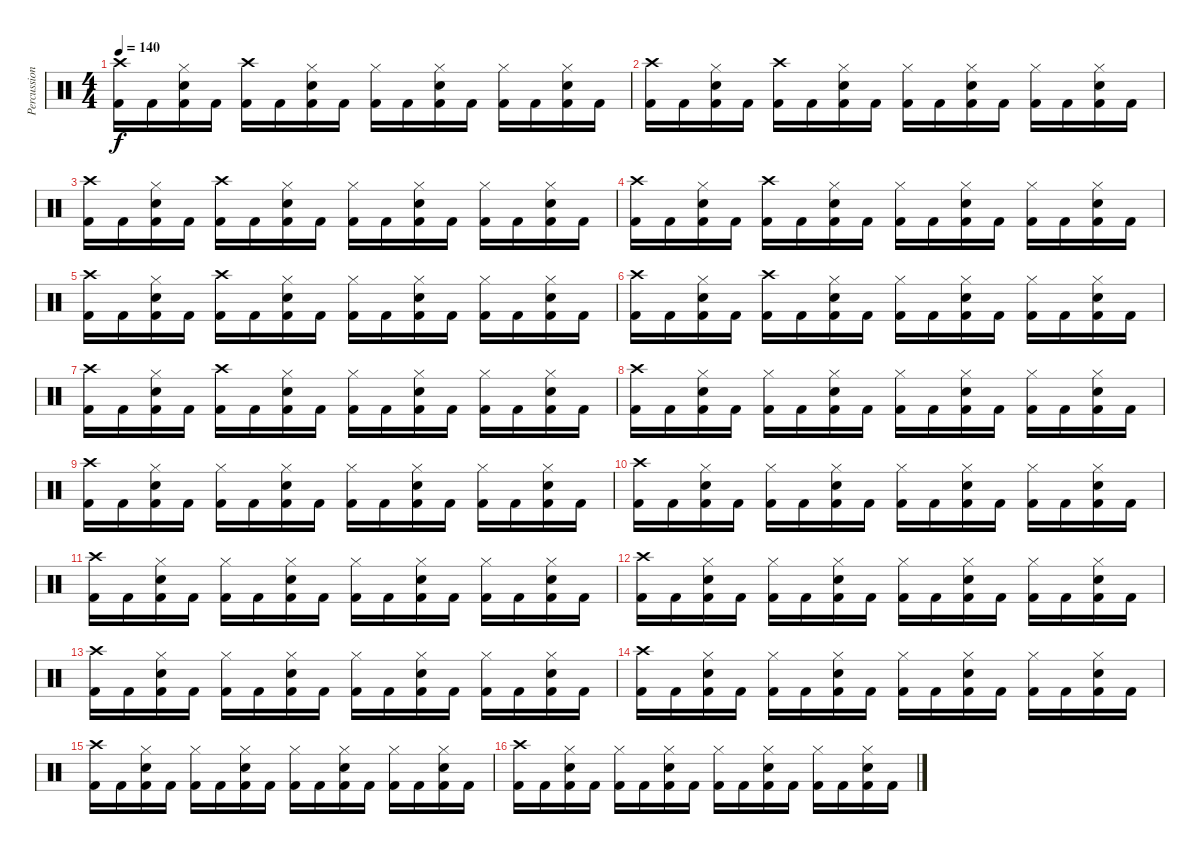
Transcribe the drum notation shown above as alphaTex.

\track ("Percussion" "Percussion") {instrument percussion}
\staff {score}
\articulation defaults
\ts (4 4)
\tempo 140
\clef neutral
\ks aminor
("Crash high (hit)" "Kick (hit) 2").16{dy f} "Kick (hit) 2".16 ("Hi-Hat (closed)" "Snare (hit) 2" "Kick (hit) 2").16 "Kick (hit) 2".16 ("Crash high (hit)" "Kick (hit) 2").16 "Kick (hit) 2".16 ("Hi-Hat (closed)" "Snare (hit) 2" "Kick (hit) 2").16 "Kick (hit) 2".16 ("Hi-Hat (closed)" "Kick (hit) 2").16 "Kick (hit) 2".16 ("Hi-Hat (closed)" "Snare (hit) 2" "Kick (hit) 2").16 "Kick (hit) 2".16 ("Hi-Hat (closed)" "Kick (hit) 2").16 "Kick (hit) 2".16 ("Hi-Hat (closed)" "Snare (hit) 2" "Kick (hit) 2").16 "Kick (hit) 2".16 |
("Crash high (hit)" "Kick (hit) 2").16 "Kick (hit) 2".16 ("Hi-Hat (closed)" "Snare (hit) 2" "Kick (hit) 2").16 "Kick (hit) 2".16 ("Crash high (hit)" "Kick (hit) 2").16 "Kick (hit) 2".16 ("Hi-Hat (closed)" "Snare (hit) 2" "Kick (hit) 2").16 "Kick (hit) 2".16 ("Hi-Hat (closed)" "Kick (hit) 2").16 "Kick (hit) 2".16 ("Hi-Hat (closed)" "Snare (hit) 2" "Kick (hit) 2").16 "Kick (hit) 2".16 ("Hi-Hat (closed)" "Kick (hit) 2").16 "Kick (hit) 2".16 ("Hi-Hat (closed)" "Snare (hit) 2" "Kick (hit) 2").16 "Kick (hit) 2".16 |
("Crash high (hit)" "Kick (hit) 2").16 "Kick (hit) 2".16 ("Hi-Hat (closed)" "Snare (hit) 2" "Kick (hit) 2").16 "Kick (hit) 2".16 ("Crash high (hit)" "Kick (hit) 2").16 "Kick (hit) 2".16 ("Hi-Hat (closed)" "Snare (hit) 2" "Kick (hit) 2").16 "Kick (hit) 2".16 ("Hi-Hat (closed)" "Kick (hit) 2").16 "Kick (hit) 2".16 ("Hi-Hat (closed)" "Snare (hit) 2" "Kick (hit) 2").16 "Kick (hit) 2".16 ("Hi-Hat (closed)" "Kick (hit) 2").16 "Kick (hit) 2".16 ("Hi-Hat (closed)" "Snare (hit) 2" "Kick (hit) 2").16 "Kick (hit) 2".16 |
("Crash high (hit)" "Kick (hit) 2").16 "Kick (hit) 2".16 ("Hi-Hat (closed)" "Snare (hit) 2" "Kick (hit) 2").16 "Kick (hit) 2".16 ("Crash high (hit)" "Kick (hit) 2").16 "Kick (hit) 2".16 ("Hi-Hat (closed)" "Snare (hit) 2" "Kick (hit) 2").16 "Kick (hit) 2".16 ("Hi-Hat (closed)" "Kick (hit) 2").16 "Kick (hit) 2".16 ("Hi-Hat (closed)" "Snare (hit) 2" "Kick (hit) 2").16 "Kick (hit) 2".16 ("Hi-Hat (closed)" "Kick (hit) 2").16 "Kick (hit) 2".16 ("Hi-Hat (closed)" "Snare (hit) 2" "Kick (hit) 2").16 "Kick (hit) 2".16 |
("Crash high (hit)" "Kick (hit) 2").16 "Kick (hit) 2".16 ("Hi-Hat (closed)" "Snare (hit) 2" "Kick (hit) 2").16 "Kick (hit) 2".16 ("Crash high (hit)" "Kick (hit) 2").16 "Kick (hit) 2".16 ("Hi-Hat (closed)" "Snare (hit) 2" "Kick (hit) 2").16 "Kick (hit) 2".16 ("Hi-Hat (closed)" "Kick (hit) 2").16 "Kick (hit) 2".16 ("Hi-Hat (closed)" "Snare (hit) 2" "Kick (hit) 2").16 "Kick (hit) 2".16 ("Hi-Hat (closed)" "Kick (hit) 2").16 "Kick (hit) 2".16 ("Hi-Hat (closed)" "Snare (hit) 2" "Kick (hit) 2").16 "Kick (hit) 2".16 |
("Crash high (hit)" "Kick (hit) 2").16 "Kick (hit) 2".16 ("Hi-Hat (closed)" "Snare (hit) 2" "Kick (hit) 2").16 "Kick (hit) 2".16 ("Crash high (hit)" "Kick (hit) 2").16 "Kick (hit) 2".16 ("Hi-Hat (closed)" "Snare (hit) 2" "Kick (hit) 2").16 "Kick (hit) 2".16 ("Hi-Hat (closed)" "Kick (hit) 2").16 "Kick (hit) 2".16 ("Hi-Hat (closed)" "Snare (hit) 2" "Kick (hit) 2").16 "Kick (hit) 2".16 ("Hi-Hat (closed)" "Kick (hit) 2").16 "Kick (hit) 2".16 ("Hi-Hat (closed)" "Snare (hit) 2" "Kick (hit) 2").16 "Kick (hit) 2".16 |
("Crash high (hit)" "Kick (hit) 2").16 "Kick (hit) 2".16 ("Hi-Hat (closed)" "Snare (hit) 2" "Kick (hit) 2").16 "Kick (hit) 2".16 ("Crash high (hit)" "Kick (hit) 2").16 "Kick (hit) 2".16 ("Hi-Hat (closed)" "Snare (hit) 2" "Kick (hit) 2").16 "Kick (hit) 2".16 ("Hi-Hat (closed)" "Kick (hit) 2").16 "Kick (hit) 2".16 ("Hi-Hat (closed)" "Snare (hit) 2" "Kick (hit) 2").16 "Kick (hit) 2".16 ("Hi-Hat (closed)" "Kick (hit) 2").16 "Kick (hit) 2".16 ("Hi-Hat (closed)" "Snare (hit) 2" "Kick (hit) 2").16 "Kick (hit) 2".16 |
("Crash high (hit)" "Kick (hit) 2").16 "Kick (hit) 2".16 ("Hi-Hat (closed)" "Snare (hit) 2" "Kick (hit) 2").16 "Kick (hit) 2".16 ("Hi-Hat (closed)" "Kick (hit) 2").16 "Kick (hit) 2".16 ("Hi-Hat (closed)" "Snare (hit) 2" "Kick (hit) 2").16 "Kick (hit) 2".16 ("Hi-Hat (closed)" "Kick (hit) 2").16 "Kick (hit) 2".16 ("Hi-Hat (closed)" "Snare (hit) 2" "Kick (hit) 2").16 "Kick (hit) 2".16 ("Hi-Hat (closed)" "Kick (hit) 2").16 "Kick (hit) 2".16 ("Hi-Hat (closed)" "Snare (hit) 2" "Kick (hit) 2").16 "Kick (hit) 2".16 |
("Crash high (hit)" "Kick (hit) 2").16 "Kick (hit) 2".16 ("Hi-Hat (closed)" "Snare (hit) 2" "Kick (hit) 2").16 "Kick (hit) 2".16 ("Hi-Hat (closed)" "Kick (hit) 2").16 "Kick (hit) 2".16 ("Hi-Hat (closed)" "Snare (hit) 2" "Kick (hit) 2").16 "Kick (hit) 2".16 ("Hi-Hat (closed)" "Kick (hit) 2").16 "Kick (hit) 2".16 ("Hi-Hat (closed)" "Snare (hit) 2" "Kick (hit) 2").16 "Kick (hit) 2".16 ("Hi-Hat (closed)" "Kick (hit) 2").16 "Kick (hit) 2".16 ("Hi-Hat (closed)" "Snare (hit) 2" "Kick (hit) 2").16 "Kick (hit) 2".16 |
("Crash high (hit)" "Kick (hit) 2").16 "Kick (hit) 2".16 ("Hi-Hat (closed)" "Snare (hit) 2" "Kick (hit) 2").16 "Kick (hit) 2".16 ("Hi-Hat (closed)" "Kick (hit) 2").16 "Kick (hit) 2".16 ("Hi-Hat (closed)" "Snare (hit) 2" "Kick (hit) 2").16 "Kick (hit) 2".16 ("Hi-Hat (closed)" "Kick (hit) 2").16 "Kick (hit) 2".16 ("Hi-Hat (closed)" "Snare (hit) 2" "Kick (hit) 2").16 "Kick (hit) 2".16 ("Hi-Hat (closed)" "Kick (hit) 2").16 "Kick (hit) 2".16 ("Hi-Hat (closed)" "Snare (hit) 2" "Kick (hit) 2").16 "Kick (hit) 2".16 |
("Crash high (hit)" "Kick (hit) 2").16 "Kick (hit) 2".16 ("Hi-Hat (closed)" "Snare (hit) 2" "Kick (hit) 2").16 "Kick (hit) 2".16 ("Hi-Hat (closed)" "Kick (hit) 2").16 "Kick (hit) 2".16 ("Hi-Hat (closed)" "Snare (hit) 2" "Kick (hit) 2").16 "Kick (hit) 2".16 ("Hi-Hat (closed)" "Kick (hit) 2").16 "Kick (hit) 2".16 ("Hi-Hat (closed)" "Snare (hit) 2" "Kick (hit) 2").16 "Kick (hit) 2".16 ("Hi-Hat (closed)" "Kick (hit) 2").16 "Kick (hit) 2".16 ("Hi-Hat (closed)" "Snare (hit) 2" "Kick (hit) 2").16 "Kick (hit) 2".16 |
("Crash high (hit)" "Kick (hit) 2").16 "Kick (hit) 2".16 ("Hi-Hat (closed)" "Snare (hit) 2" "Kick (hit) 2").16 "Kick (hit) 2".16 ("Hi-Hat (closed)" "Kick (hit) 2").16 "Kick (hit) 2".16 ("Hi-Hat (closed)" "Snare (hit) 2" "Kick (hit) 2").16 "Kick (hit) 2".16 ("Hi-Hat (closed)" "Kick (hit) 2").16 "Kick (hit) 2".16 ("Hi-Hat (closed)" "Snare (hit) 2" "Kick (hit) 2").16 "Kick (hit) 2".16 ("Hi-Hat (closed)" "Kick (hit) 2").16 "Kick (hit) 2".16 ("Hi-Hat (closed)" "Snare (hit) 2" "Kick (hit) 2").16 "Kick (hit) 2".16 |
("Crash high (hit)" "Kick (hit) 2").16 "Kick (hit) 2".16 ("Hi-Hat (closed)" "Snare (hit) 2" "Kick (hit) 2").16 "Kick (hit) 2".16 ("Hi-Hat (closed)" "Kick (hit) 2").16 "Kick (hit) 2".16 ("Hi-Hat (closed)" "Snare (hit) 2" "Kick (hit) 2").16 "Kick (hit) 2".16 ("Hi-Hat (closed)" "Kick (hit) 2").16 "Kick (hit) 2".16 ("Hi-Hat (closed)" "Snare (hit) 2" "Kick (hit) 2").16 "Kick (hit) 2".16 ("Hi-Hat (closed)" "Kick (hit) 2").16 "Kick (hit) 2".16 ("Hi-Hat (closed)" "Snare (hit) 2" "Kick (hit) 2").16 "Kick (hit) 2".16 |
("Crash high (hit)" "Kick (hit) 2").16 "Kick (hit) 2".16 ("Hi-Hat (closed)" "Snare (hit) 2" "Kick (hit) 2").16 "Kick (hit) 2".16 ("Hi-Hat (closed)" "Kick (hit) 2").16 "Kick (hit) 2".16 ("Hi-Hat (closed)" "Snare (hit) 2" "Kick (hit) 2").16 "Kick (hit) 2".16 ("Hi-Hat (closed)" "Kick (hit) 2").16 "Kick (hit) 2".16 ("Hi-Hat (closed)" "Snare (hit) 2" "Kick (hit) 2").16 "Kick (hit) 2".16 ("Hi-Hat (closed)" "Kick (hit) 2").16 "Kick (hit) 2".16 ("Hi-Hat (closed)" "Snare (hit) 2" "Kick (hit) 2").16 "Kick (hit) 2".16 |
("Crash high (hit)" "Kick (hit) 2").16 "Kick (hit) 2".16 ("Hi-Hat (closed)" "Snare (hit) 2" "Kick (hit) 2").16 "Kick (hit) 2".16 ("Hi-Hat (closed)" "Kick (hit) 2").16 "Kick (hit) 2".16 ("Hi-Hat (closed)" "Snare (hit) 2" "Kick (hit) 2").16 "Kick (hit) 2".16 ("Hi-Hat (closed)" "Kick (hit) 2").16 "Kick (hit) 2".16 ("Hi-Hat (closed)" "Snare (hit) 2" "Kick (hit) 2").16 "Kick (hit) 2".16 ("Hi-Hat (closed)" "Kick (hit) 2").16 "Kick (hit) 2".16 ("Hi-Hat (closed)" "Snare (hit) 2" "Kick (hit) 2").16 "Kick (hit) 2".16 |
("Crash high (hit)" "Kick (hit) 2").16 "Kick (hit) 2".16 ("Hi-Hat (closed)" "Snare (hit) 2" "Kick (hit) 2").16 "Kick (hit) 2".16 ("Hi-Hat (closed)" "Kick (hit) 2").16 "Kick (hit) 2".16 ("Hi-Hat (closed)" "Snare (hit) 2" "Kick (hit) 2").16 "Kick (hit) 2".16 ("Hi-Hat (closed)" "Kick (hit) 2").16 "Kick (hit) 2".16 ("Hi-Hat (closed)" "Snare (hit) 2" "Kick (hit) 2").16 "Kick (hit) 2".16 ("Hi-Hat (closed)" "Kick (hit) 2").16 "Kick (hit) 2".16 ("Hi-Hat (closed)" "Snare (hit) 2" "Kick (hit) 2").16 "Kick (hit) 2".16
